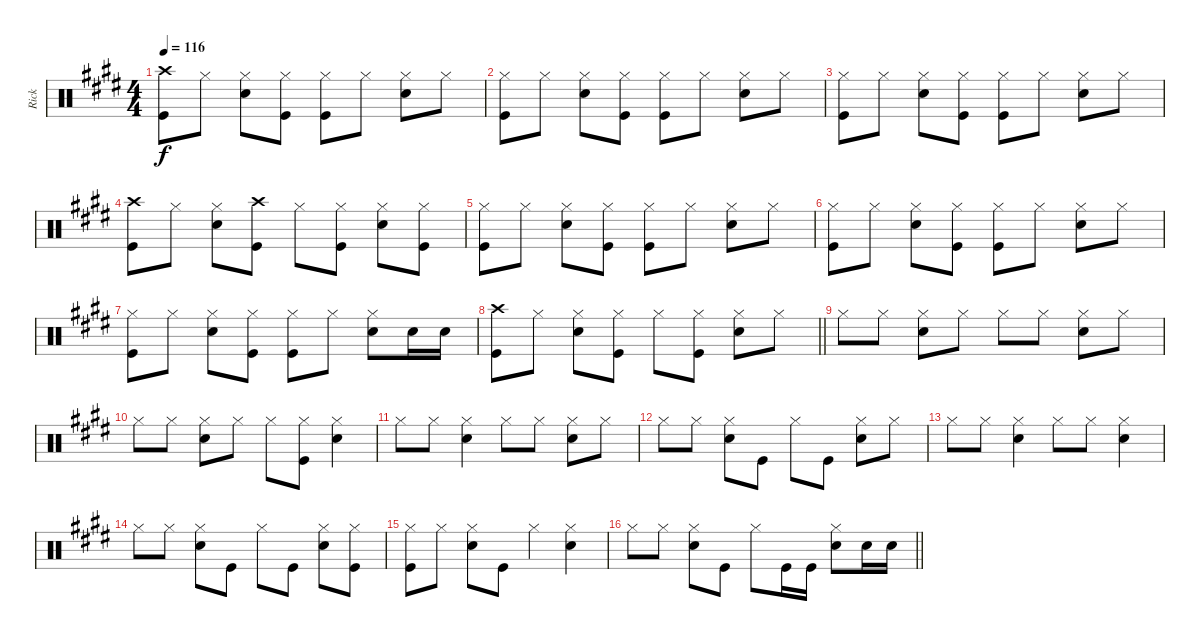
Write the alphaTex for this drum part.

\track ("Rick" "Rick") {instrument percussion}
\staff {score}
\articulation defaults
\ts (4 4)
\tempo 116
\clef neutral
\ks e
("Crash high (hit)" "Kick (hit)").8{dy f} "Hi-Hat (closed)".8 ("Hi-Hat (closed)" "Snare (hit) 2").8 ("Hi-Hat (closed)" "Kick (hit)").8 ("Hi-Hat (closed)" "Kick (hit)").8 "Hi-Hat (closed)".8 ("Hi-Hat (closed)" "Snare (hit) 2").8 "Hi-Hat (closed)".8 |
("Hi-Hat (closed)" "Kick (hit)").8 "Hi-Hat (closed)".8 ("Hi-Hat (closed)" "Snare (hit) 2").8 ("Hi-Hat (closed)" "Kick (hit)").8 ("Hi-Hat (closed)" "Kick (hit)").8 "Hi-Hat (closed)".8 ("Hi-Hat (closed)" "Snare (hit) 2").8 "Hi-Hat (closed)".8 |
("Hi-Hat (closed)" "Kick (hit)").8 "Hi-Hat (closed)".8 ("Hi-Hat (closed)" "Snare (hit) 2").8 ("Hi-Hat (closed)" "Kick (hit)").8 ("Hi-Hat (closed)" "Kick (hit)").8 "Hi-Hat (closed)".8 ("Hi-Hat (closed)" "Snare (hit) 2").8 "Hi-Hat (closed)".8 |
("Crash high (hit)" "Kick (hit)").8 "Hi-Hat (closed)".8 ("Hi-Hat (closed)" "Snare (hit) 2").8 ("Crash high (hit)" "Kick (hit)").8 "Hi-Hat (closed)".8 ("Hi-Hat (closed)" "Kick (hit)").8 ("Hi-Hat (closed)" "Snare (hit) 2").8 ("Hi-Hat (closed)" "Kick (hit)").8 |
("Hi-Hat (closed)" "Kick (hit)").8 "Hi-Hat (closed)".8 ("Hi-Hat (closed)" "Snare (hit) 2").8 ("Hi-Hat (closed)" "Kick (hit)").8 ("Hi-Hat (closed)" "Kick (hit)").8 "Hi-Hat (closed)".8 ("Hi-Hat (closed)" "Snare (hit) 2").8 "Hi-Hat (closed)".8 |
("Hi-Hat (closed)" "Kick (hit)").8 "Hi-Hat (closed)".8 ("Hi-Hat (closed)" "Snare (hit) 2").8 ("Hi-Hat (closed)" "Kick (hit)").8 ("Hi-Hat (closed)" "Kick (hit)").8 "Hi-Hat (closed)".8 ("Hi-Hat (closed)" "Snare (hit) 2").8 "Hi-Hat (closed)".8 |
("Hi-Hat (closed)" "Kick (hit)").8 "Hi-Hat (closed)".8 ("Hi-Hat (closed)" "Snare (hit) 2").8 ("Hi-Hat (closed)" "Kick (hit)").8 ("Hi-Hat (closed)" "Kick (hit)").8 "Hi-Hat (closed)".8 ("Hi-Hat (closed)" "Snare (hit) 2").8 "Snare (hit) 2".16 "Snare (hit) 2".16 |
\barLineRight lightlight
("Crash high (hit)" "Kick (hit)").8 "Hi-Hat (closed)".8 ("Hi-Hat (closed)" "Snare (hit) 2").8 ("Hi-Hat (closed)" "Kick (hit)").8 "Hi-Hat (closed)".8 ("Hi-Hat (closed)" "Kick (hit)").8 ("Hi-Hat (closed)" "Snare (hit) 2").8 "Hi-Hat (closed)".8 |
"Hi-Hat (closed)".8 "Hi-Hat (closed)".8 ("Hi-Hat (closed)" "Snare (hit) 2").8 "Hi-Hat (closed)".8 "Hi-Hat (closed)".8 "Hi-Hat (closed)".8 ("Hi-Hat (closed)" "Snare (hit) 2").8 "Hi-Hat (closed)".8 |
"Hi-Hat (closed)".8 "Hi-Hat (closed)".8 ("Hi-Hat (closed)" "Snare (hit) 2").8 "Hi-Hat (closed)".8 "Hi-Hat (closed)".8 ("Hi-Hat (closed)" "Kick (hit)").8 ("Hi-Hat (closed)" "Snare (hit) 2").4 |
"Hi-Hat (closed)".8 "Hi-Hat (closed)".8 ("Hi-Hat (closed)" "Snare (hit) 2").4 "Hi-Hat (closed)".8 "Hi-Hat (closed)".8 ("Hi-Hat (closed)" "Snare (hit) 2").8 "Hi-Hat (closed)".8 |
"Hi-Hat (closed)".8 "Hi-Hat (closed)".8 ("Hi-Hat (closed)" "Snare (hit) 2").8 "Kick (hit)".8 "Hi-Hat (closed)".8 "Kick (hit)".8 ("Hi-Hat (closed)" "Snare (hit) 2").8 "Hi-Hat (closed)".8 |
"Hi-Hat (closed)".8 "Hi-Hat (closed)".8 ("Hi-Hat (closed)" "Snare (hit) 2").4 "Hi-Hat (closed)".8 "Hi-Hat (closed)".8 ("Hi-Hat (closed)" "Snare (hit) 2").4 |
"Hi-Hat (closed)".8 "Hi-Hat (closed)".8 ("Hi-Hat (closed)" "Snare (hit) 2").8 "Kick (hit)".8 "Hi-Hat (closed)".8 "Kick (hit)".8 ("Hi-Hat (closed)" "Snare (hit) 2").8 ("Hi-Hat (closed)" "Kick (hit)").8 |
("Hi-Hat (closed)" "Kick (hit)").8 "Hi-Hat (closed)".8 ("Hi-Hat (closed)" "Snare (hit) 2").8 "Kick (hit)".8 "Hi-Hat (closed)".4 ("Hi-Hat (closed)" "Snare (hit) 2").4 |
\barLineRight lightlight "Hi-Hat (closed)".8 "Hi-Hat (closed)".8
("Hi-Hat (closed)" "Snare (hit) 2").8 "Kick (hit)".8 "Hi-Hat (closed)".8 "Kick (hit)".16 "Kick (hit)".16 ("Hi-Hat (closed)" "Snare (hit) 2").8 "Snare (hit) 2".16 "Snare (hit) 2".16
